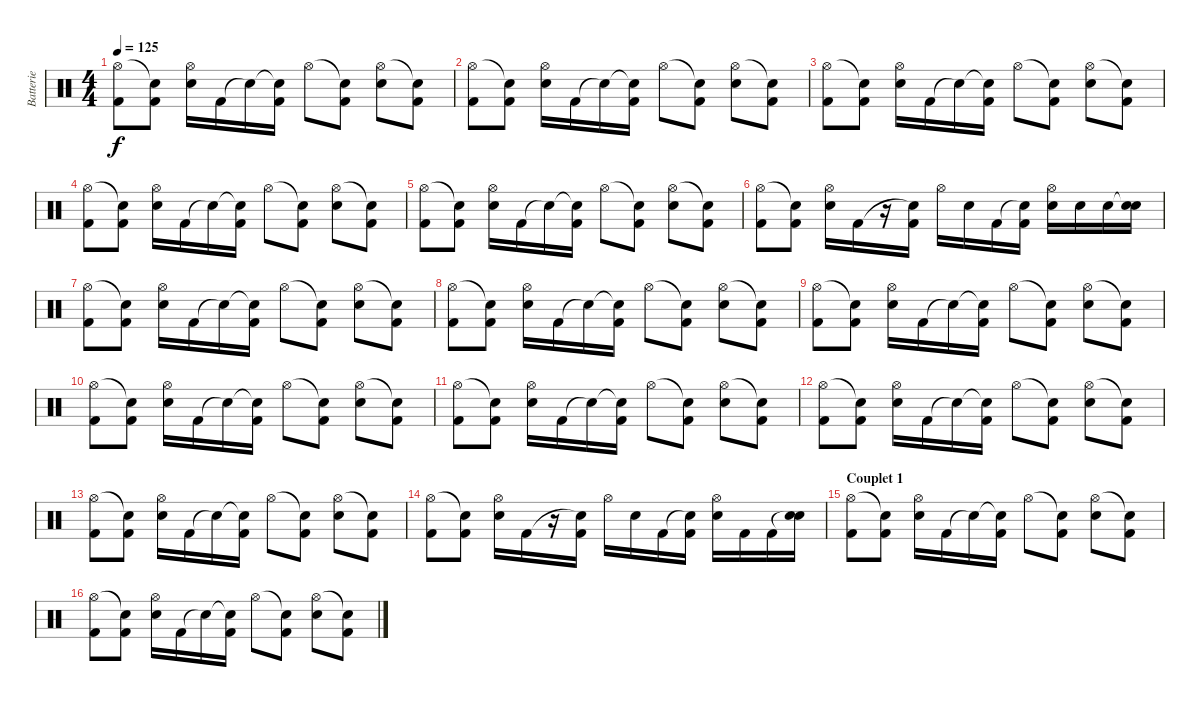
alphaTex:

\track ("Batterie" "Batterie") {instrument percussion}
\staff {score}
\articulation defaults
\ts (4 4)
\tempo 125
\clef neutral
\ks c
("Hi-Hat (open)" "Kick (hit) 2").8{dy f} ("Snare (hit)"{t} "Kick (hit) 2").8 ("Hi-Hat (open)" "Electric Snare (hit)").16 "Kick (hit) 2".16 "Snare (hit)"{t}.16 ("Snare (hit)"{t} "Kick (hit) 2").16 "Hi-Hat (open)".8 ("Snare (hit)"{t} "Kick (hit) 2").8 ("Hi-Hat (open)" "Electric Snare (hit)").8 ("Snare (hit)"{t} "Kick (hit) 2").8 |
("Hi-Hat (open)" "Kick (hit) 2").8 ("Snare (hit)"{t} "Kick (hit) 2").8 ("Hi-Hat (open)" "Electric Snare (hit)").16 "Kick (hit) 2".16 "Snare (hit)"{t}.16 ("Snare (hit)"{t} "Kick (hit) 2").16 "Hi-Hat (open)".8 ("Snare (hit)"{t} "Kick (hit) 2").8 ("Hi-Hat (open)" "Electric Snare (hit)").8 ("Snare (hit)"{t} "Kick (hit) 2").8 |
("Hi-Hat (open)" "Kick (hit) 2").8 ("Snare (hit)"{t} "Kick (hit) 2").8 ("Hi-Hat (open)" "Electric Snare (hit)").16 "Kick (hit) 2".16 "Snare (hit)"{t}.16 ("Snare (hit)"{t} "Kick (hit) 2").16 "Hi-Hat (open)".8 ("Snare (hit)"{t} "Kick (hit) 2").8 ("Hi-Hat (open)" "Electric Snare (hit)").8 ("Snare (hit)"{t} "Kick (hit) 2").8 |
("Hi-Hat (open)" "Kick (hit) 2").8 ("Snare (hit)"{t} "Kick (hit) 2").8 ("Hi-Hat (open)" "Electric Snare (hit)").16 "Kick (hit) 2".16 "Snare (hit)"{t}.16 ("Snare (hit)"{t} "Kick (hit) 2").16 "Hi-Hat (open)".8 ("Snare (hit)"{t} "Kick (hit) 2").8 ("Hi-Hat (open)" "Electric Snare (hit)").8 ("Snare (hit)"{t} "Kick (hit) 2").8 |
("Hi-Hat (open)" "Kick (hit) 2").8 ("Snare (hit)"{t} "Kick (hit) 2").8 ("Hi-Hat (open)" "Electric Snare (hit)").16 "Kick (hit) 2".16 "Snare (hit)"{t}.16 ("Snare (hit)"{t} "Kick (hit) 2").16 "Hi-Hat (open)".8 ("Snare (hit)"{t} "Kick (hit) 2").8 ("Hi-Hat (open)" "Electric Snare (hit)").8 ("Snare (hit)"{t} "Kick (hit) 2").8 |
("Hi-Hat (open)" "Kick (hit) 2").8 ("Snare (hit)"{t} "Kick (hit) 2").8 ("Hi-Hat (open)" "Electric Snare (hit)").16 "Kick (hit) 2".16 r.16 ("Snare (hit)"{t} "Kick (hit) 2").16 "Hi-Hat (open)".16 "Electric Snare (hit)".16 "Kick (hit) 2".16 ("Snare (hit)"{t} "Kick (hit) 2").16 ("Hi-Hat (open)" "Electric Snare (hit)").16 "Electric Snare (hit)".16 "Electric Snare (hit)".16 ("Snare (hit)"{t} "Electric Snare (hit)").16 |
("Hi-Hat (open)" "Kick (hit) 2").8 ("Snare (hit)"{t} "Kick (hit) 2").8 ("Hi-Hat (open)" "Electric Snare (hit)").16 "Kick (hit) 2".16 "Snare (hit)"{t}.16 ("Snare (hit)"{t} "Kick (hit) 2").16 "Hi-Hat (open)".8 ("Snare (hit)"{t} "Kick (hit) 2").8 ("Hi-Hat (open)" "Electric Snare (hit)").8 ("Snare (hit)"{t} "Kick (hit) 2").8 |
("Hi-Hat (open)" "Kick (hit) 2").8 ("Snare (hit)"{t} "Kick (hit) 2").8 ("Hi-Hat (open)" "Electric Snare (hit)").16 "Kick (hit) 2".16 "Snare (hit)"{t}.16 ("Snare (hit)"{t} "Kick (hit) 2").16 "Hi-Hat (open)".8 ("Snare (hit)"{t} "Kick (hit) 2").8 ("Hi-Hat (open)" "Electric Snare (hit)").8 ("Snare (hit)"{t} "Kick (hit) 2").8 |
("Hi-Hat (open)" "Kick (hit) 2").8 ("Snare (hit)"{t} "Kick (hit) 2").8 ("Hi-Hat (open)" "Electric Snare (hit)").16 "Kick (hit) 2".16 "Snare (hit)"{t}.16 ("Snare (hit)"{t} "Kick (hit) 2").16 "Hi-Hat (open)".8 ("Snare (hit)"{t} "Kick (hit) 2").8 ("Hi-Hat (open)" "Electric Snare (hit)").8 ("Snare (hit)"{t} "Kick (hit) 2").8 |
("Hi-Hat (open)" "Kick (hit) 2").8 ("Snare (hit)"{t} "Kick (hit) 2").8 ("Hi-Hat (open)" "Electric Snare (hit)").16 "Kick (hit) 2".16 "Snare (hit)"{t}.16 ("Snare (hit)"{t} "Kick (hit) 2").16 "Hi-Hat (open)".8 ("Snare (hit)"{t} "Kick (hit) 2").8 ("Hi-Hat (open)" "Electric Snare (hit)").8 ("Snare (hit)"{t} "Kick (hit) 2").8 |
("Hi-Hat (open)" "Kick (hit) 2").8 ("Snare (hit)"{t} "Kick (hit) 2").8 ("Hi-Hat (open)" "Electric Snare (hit)").16 "Kick (hit) 2".16 "Snare (hit)"{t}.16 ("Snare (hit)"{t} "Kick (hit) 2").16 "Hi-Hat (open)".8 ("Snare (hit)"{t} "Kick (hit) 2").8 ("Hi-Hat (open)" "Electric Snare (hit)").8 ("Snare (hit)"{t} "Kick (hit) 2").8 |
("Hi-Hat (open)" "Kick (hit) 2").8 ("Snare (hit)"{t} "Kick (hit) 2").8 ("Hi-Hat (open)" "Electric Snare (hit)").16 "Kick (hit) 2".16 "Snare (hit)"{t}.16 ("Snare (hit)"{t} "Kick (hit) 2").16 "Hi-Hat (open)".8 ("Snare (hit)"{t} "Kick (hit) 2").8 ("Hi-Hat (open)" "Electric Snare (hit)").8 ("Snare (hit)"{t} "Kick (hit) 2").8 |
("Hi-Hat (open)" "Kick (hit) 2").8 ("Snare (hit)"{t} "Kick (hit) 2").8 ("Hi-Hat (open)" "Electric Snare (hit)").16 "Kick (hit) 2".16 "Snare (hit)"{t}.16 ("Snare (hit)"{t} "Kick (hit) 2").16 "Hi-Hat (open)".8 ("Snare (hit)"{t} "Kick (hit) 2").8 ("Hi-Hat (open)" "Electric Snare (hit)").8 ("Snare (hit)"{t} "Kick (hit) 2").8 |
("Hi-Hat (open)" "Kick (hit) 2").8 ("Snare (hit)"{t} "Kick (hit) 2").8 ("Hi-Hat (open)" "Electric Snare (hit)").16 "Kick (hit) 2".16 r.16 ("Snare (hit)"{t} "Kick (hit) 2").16 "Hi-Hat (open)".16 "Electric Snare (hit)".16 "Kick (hit) 2".16 ("Snare (hit)"{t} "Kick (hit) 2").16 ("Hi-Hat (open)" "Electric Snare (hit)").16 "Kick (hit) 2".16 "Kick (hit) 2".16 ("Snare (hit)"{t} "Electric Snare (hit)").16 |
\section ("" "Couplet 1")
("Hi-Hat (open)" "Kick (hit) 2").8 ("Snare (hit)"{t} "Kick (hit) 2").8 ("Hi-Hat (open)" "Electric Snare (hit)").16 "Kick (hit) 2".16 "Snare (hit)"{t}.16 ("Snare (hit)"{t} "Kick (hit) 2").16 "Hi-Hat (open)".8 ("Snare (hit)"{t} "Kick (hit) 2").8 ("Hi-Hat (open)" "Electric Snare (hit)").8 ("Snare (hit)"{t} "Kick (hit) 2").8 |
("Hi-Hat (open)" "Kick (hit) 2").8 ("Snare (hit)"{t} "Kick (hit) 2").8 ("Hi-Hat (open)" "Electric Snare (hit)").16 "Kick (hit) 2".16 "Snare (hit)"{t}.16 ("Snare (hit)"{t} "Kick (hit) 2").16 "Hi-Hat (open)".8 ("Snare (hit)"{t} "Kick (hit) 2").8 ("Hi-Hat (open)" "Electric Snare (hit)").8 ("Snare (hit)"{t} "Kick (hit) 2").8
